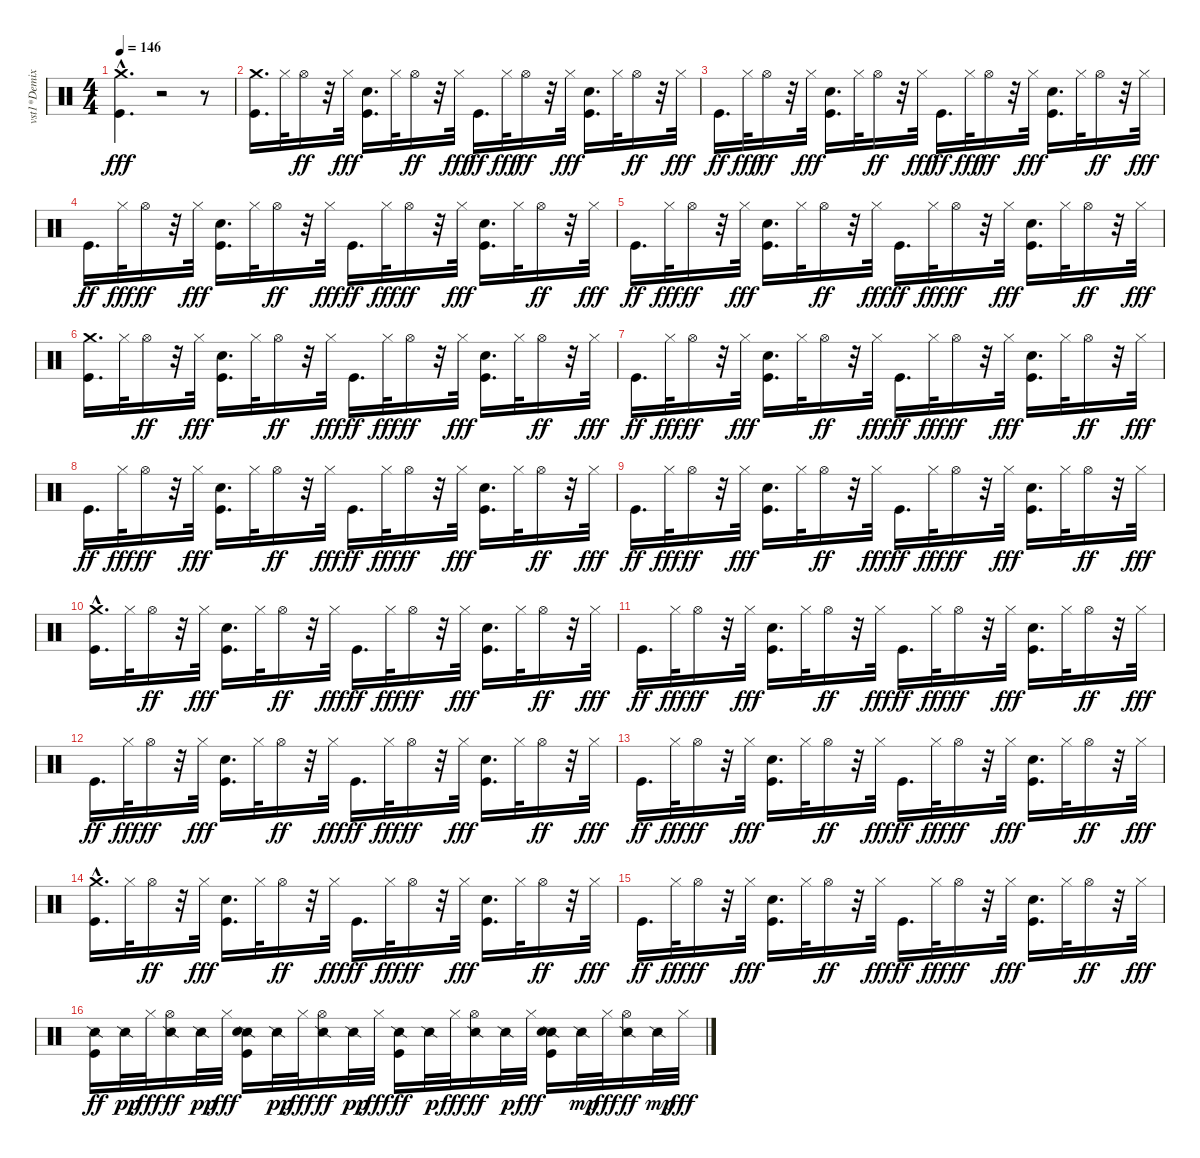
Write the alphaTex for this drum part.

\track ("vst1*Demixed 10" "vst1*Demix") {instrument percussion}
\staff {score}
\articulation defaults
\ts (4 4)
\tempo 146
\clef neutral
\ks c
("Kick (hit)"{hac} "Crash medium (hit)"{hac}).4{d dy fff} r.2 r.8 |
("Kick (hit)" "Crash medium (hit)").16{d} "Hi-Hat (closed)".32 "Hi-Hat (open)".16{dy ff} r.32 "Hi-Hat (closed)".32{dy fff} ("Kick (hit)" "Hand Clap (hit)").16{d} "Hi-Hat (closed)".32 "Hi-Hat (open)".16{dy ff} r.32 "Hi-Hat (closed)".32{dy fff} "Kick (hit)".16{d dy ff} "Hi-Hat (closed)".32{dy fff} "Hi-Hat (open)".16{dy ff} r.32 "Hi-Hat (closed)".32{dy fff} ("Kick (hit)" "Hand Clap (hit)").16{d} "Hi-Hat (closed)".32 "Hi-Hat (open)".16{dy ff} r.32 "Hi-Hat (closed)".32{dy fff} |
"Kick (hit)".16{d dy ff} "Hi-Hat (closed)".32{dy fff} "Hi-Hat (open)".16{dy ff} r.32 "Hi-Hat (closed)".32{dy fff} ("Kick (hit)" "Hand Clap (hit)").16{d} "Hi-Hat (closed)".32 "Hi-Hat (open)".16{dy ff} r.32 "Hi-Hat (closed)".32{dy fff} "Kick (hit)".16{d dy ff} "Hi-Hat (closed)".32{dy fff} "Hi-Hat (open)".16{dy ff} r.32 "Hi-Hat (closed)".32{dy fff} ("Kick (hit)" "Hand Clap (hit)").16{d} "Hi-Hat (closed)".32 "Hi-Hat (open)".16{dy ff} r.32 "Hi-Hat (closed)".32{dy fff} |
"Kick (hit)".16{d dy ff} "Hi-Hat (closed)".32{dy fff} "Hi-Hat (open)".16{dy ff} r.32 "Hi-Hat (closed)".32{dy fff} ("Kick (hit)" "Hand Clap (hit)").16{d} "Hi-Hat (closed)".32 "Hi-Hat (open)".16{dy ff} r.32 "Hi-Hat (closed)".32{dy fff} "Kick (hit)".16{d dy ff} "Hi-Hat (closed)".32{dy fff} "Hi-Hat (open)".16{dy ff} r.32 "Hi-Hat (closed)".32{dy fff} ("Kick (hit)" "Hand Clap (hit)").16{d} "Hi-Hat (closed)".32 "Hi-Hat (open)".16{dy ff} r.32 "Hi-Hat (closed)".32{dy fff} |
"Kick (hit)".16{d dy ff} "Hi-Hat (closed)".32{dy fff} "Hi-Hat (open)".16{dy ff} r.32 "Hi-Hat (closed)".32{dy fff} ("Kick (hit)" "Hand Clap (hit)").16{d} "Hi-Hat (closed)".32 "Hi-Hat (open)".16{dy ff} r.32 "Hi-Hat (closed)".32{dy fff} "Kick (hit)".16{d dy ff} "Hi-Hat (closed)".32{dy fff} "Hi-Hat (open)".16{dy ff} r.32 "Hi-Hat (closed)".32{dy fff} ("Kick (hit)" "Hand Clap (hit)").16{d} "Hi-Hat (closed)".32 "Hi-Hat (open)".16{dy ff} r.32 "Hi-Hat (closed)".32{dy fff} |
("Kick (hit)" "Crash medium (hit)").16{d} "Hi-Hat (closed)".32 "Hi-Hat (open)".16{dy ff} r.32 "Hi-Hat (closed)".32{dy fff} ("Kick (hit)" "Hand Clap (hit)").16{d} "Hi-Hat (closed)".32 "Hi-Hat (open)".16{dy ff} r.32 "Hi-Hat (closed)".32{dy fff} "Kick (hit)".16{d dy ff} "Hi-Hat (closed)".32{dy fff} "Hi-Hat (open)".16{dy ff} r.32 "Hi-Hat (closed)".32{dy fff} ("Kick (hit)" "Hand Clap (hit)").16{d} "Hi-Hat (closed)".32 "Hi-Hat (open)".16{dy ff} r.32 "Hi-Hat (closed)".32{dy fff} |
"Kick (hit)".16{d dy ff} "Hi-Hat (closed)".32{dy fff} "Hi-Hat (open)".16{dy ff} r.32 "Hi-Hat (closed)".32{dy fff} ("Kick (hit)" "Hand Clap (hit)").16{d} "Hi-Hat (closed)".32 "Hi-Hat (open)".16{dy ff} r.32 "Hi-Hat (closed)".32{dy fff} "Kick (hit)".16{d dy ff} "Hi-Hat (closed)".32{dy fff} "Hi-Hat (open)".16{dy ff} r.32 "Hi-Hat (closed)".32{dy fff} ("Kick (hit)" "Hand Clap (hit)").16{d} "Hi-Hat (closed)".32 "Hi-Hat (open)".16{dy ff} r.32 "Hi-Hat (closed)".32{dy fff} |
"Kick (hit)".16{d dy ff} "Hi-Hat (closed)".32{dy fff} "Hi-Hat (open)".16{dy ff} r.32 "Hi-Hat (closed)".32{dy fff} ("Kick (hit)" "Hand Clap (hit)").16{d} "Hi-Hat (closed)".32 "Hi-Hat (open)".16{dy ff} r.32 "Hi-Hat (closed)".32{dy fff} "Kick (hit)".16{d dy ff} "Hi-Hat (closed)".32{dy fff} "Hi-Hat (open)".16{dy ff} r.32 "Hi-Hat (closed)".32{dy fff} ("Kick (hit)" "Hand Clap (hit)").16{d} "Hi-Hat (closed)".32 "Hi-Hat (open)".16{dy ff} r.32 "Hi-Hat (closed)".32{dy fff} |
"Kick (hit)".16{d dy ff} "Hi-Hat (closed)".32{dy fff} "Hi-Hat (open)".16{dy ff} r.32 "Hi-Hat (closed)".32{dy fff} ("Kick (hit)" "Hand Clap (hit)").16{d} "Hi-Hat (closed)".32 "Hi-Hat (open)".16{dy ff} r.32 "Hi-Hat (closed)".32{dy fff} "Kick (hit)".16{d dy ff} "Hi-Hat (closed)".32{dy fff} "Hi-Hat (open)".16{dy ff} r.32 "Hi-Hat (closed)".32{dy fff} ("Kick (hit)" "Hand Clap (hit)").16{d} "Hi-Hat (closed)".32 "Hi-Hat (open)".16{dy ff} r.32 "Hi-Hat (closed)".32{dy fff} |
("Kick (hit)" "Crash medium (hit)"{hac}).16{d} "Hi-Hat (closed)".32 "Hi-Hat (open)".16{dy ff} r.32 "Hi-Hat (closed)".32{dy fff} ("Kick (hit)" "Hand Clap (hit)").16{d} "Hi-Hat (closed)".32 "Hi-Hat (open)".16{dy ff} r.32 "Hi-Hat (closed)".32{dy fff} "Kick (hit)".16{d dy ff} "Hi-Hat (closed)".32{dy fff} "Hi-Hat (open)".16{dy ff} r.32 "Hi-Hat (closed)".32{dy fff} ("Kick (hit)" "Hand Clap (hit)").16{d} "Hi-Hat (closed)".32 "Hi-Hat (open)".16{dy ff} r.32 "Hi-Hat (closed)".32{dy fff} |
"Kick (hit)".16{d dy ff} "Hi-Hat (closed)".32{dy fff} "Hi-Hat (open)".16{dy ff} r.32 "Hi-Hat (closed)".32{dy fff} ("Kick (hit)" "Hand Clap (hit)").16{d} "Hi-Hat (closed)".32 "Hi-Hat (open)".16{dy ff} r.32 "Hi-Hat (closed)".32{dy fff} "Kick (hit)".16{d dy ff} "Hi-Hat (closed)".32{dy fff} "Hi-Hat (open)".16{dy ff} r.32 "Hi-Hat (closed)".32{dy fff} ("Kick (hit)" "Hand Clap (hit)").16{d} "Hi-Hat (closed)".32 "Hi-Hat (open)".16{dy ff} r.32 "Hi-Hat (closed)".32{dy fff} |
"Kick (hit)".16{d dy ff} "Hi-Hat (closed)".32{dy fff} "Hi-Hat (open)".16{dy ff} r.32 "Hi-Hat (closed)".32{dy fff} ("Kick (hit)" "Hand Clap (hit)").16{d} "Hi-Hat (closed)".32 "Hi-Hat (open)".16{dy ff} r.32 "Hi-Hat (closed)".32{dy fff} "Kick (hit)".16{d dy ff} "Hi-Hat (closed)".32{dy fff} "Hi-Hat (open)".16{dy ff} r.32 "Hi-Hat (closed)".32{dy fff} ("Kick (hit)" "Hand Clap (hit)").16{d} "Hi-Hat (closed)".32 "Hi-Hat (open)".16{dy ff} r.32 "Hi-Hat (closed)".32{dy fff} |
"Kick (hit)".16{d dy ff} "Hi-Hat (closed)".32{dy fff} "Hi-Hat (open)".16{dy ff} r.32 "Hi-Hat (closed)".32{dy fff} ("Kick (hit)" "Hand Clap (hit)").16{d} "Hi-Hat (closed)".32 "Hi-Hat (open)".16{dy ff} r.32 "Hi-Hat (closed)".32{dy fff} "Kick (hit)".16{d dy ff} "Hi-Hat (closed)".32{dy fff} "Hi-Hat (open)".16{dy ff} r.32 "Hi-Hat (closed)".32{dy fff} ("Kick (hit)" "Hand Clap (hit)").16{d} "Hi-Hat (closed)".32 "Hi-Hat (open)".16{dy ff} r.32 "Hi-Hat (closed)".32{dy fff} |
("Kick (hit)" "Crash medium (hit)"{hac}).16{d} "Hi-Hat (closed)".32 "Hi-Hat (open)".16{dy ff} r.32 "Hi-Hat (closed)".32{dy fff} ("Kick (hit)" "Hand Clap (hit)").16{d} "Hi-Hat (closed)".32 "Hi-Hat (open)".16{dy ff} r.32 "Hi-Hat (closed)".32{dy fff} "Kick (hit)".16{d dy ff} "Hi-Hat (closed)".32{dy fff} "Hi-Hat (open)".16{dy ff} r.32 "Hi-Hat (closed)".32{dy fff} ("Kick (hit)" "Hand Clap (hit)").16{d} "Hi-Hat (closed)".32 "Hi-Hat (open)".16{dy ff} r.32 "Hi-Hat (closed)".32{dy fff} |
"Kick (hit)".16{d dy ff} "Hi-Hat (closed)".32{dy fff} "Hi-Hat (open)".16{dy ff} r.32 "Hi-Hat (closed)".32{dy fff} ("Kick (hit)" "Hand Clap (hit)").16{d} "Hi-Hat (closed)".32 "Hi-Hat (open)".16{dy ff} r.32 "Hi-Hat (closed)".32{dy fff} "Kick (hit)".16{d dy ff} "Hi-Hat (closed)".32{dy fff} "Hi-Hat (open)".16{dy ff} r.32 "Hi-Hat (closed)".32{dy fff} ("Kick (hit)" "Hand Clap (hit)").16{d} "Hi-Hat (closed)".32 "Hi-Hat (open)".16{dy ff} r.32 "Hi-Hat (closed)".32{dy fff} |
("Snare (side stick) 2" "Kick (hit)").16{dy ff} "Snare (side stick) 2".32{dy pp} "Hi-Hat (closed)".32{dy fff} ("Snare (side stick) 2" "Hi-Hat (open)").16{dy ff} "Snare (side stick) 2".32{dy pp} "Hi-Hat (closed)".32{dy fff} ("Snare (side stick) 2" "Kick (hit)" "Hand Clap (hit)").16 "Snare (side stick) 2".32{dy pp} "Hi-Hat (closed)".32{dy fff} ("Snare (side stick) 2" "Hi-Hat (open)").16{dy ff} "Snare (side stick) 2".32{dy pp} "Hi-Hat (closed)".32{dy fff} ("Snare (side stick) 2" "Kick (hit)").16{dy ff} "Snare (side stick) 2".32{dy p} "Hi-Hat (closed)".32{dy fff} ("Snare (side stick) 2" "Hi-Hat (open)").16{dy ff} "Snare (side stick) 2".32{dy p} "Hi-Hat (closed)".32{dy fff} ("Snare (side stick) 2" "Kick (hit)" "Hand Clap (hit)").16 "Snare (side stick) 2".32{dy mp} "Hi-Hat (closed)".32{dy fff} ("Snare (side stick) 2" "Hi-Hat (open)").16{dy ff} "Snare (side stick) 2".32{dy mp} "Hi-Hat (closed)".32{dy fff}
